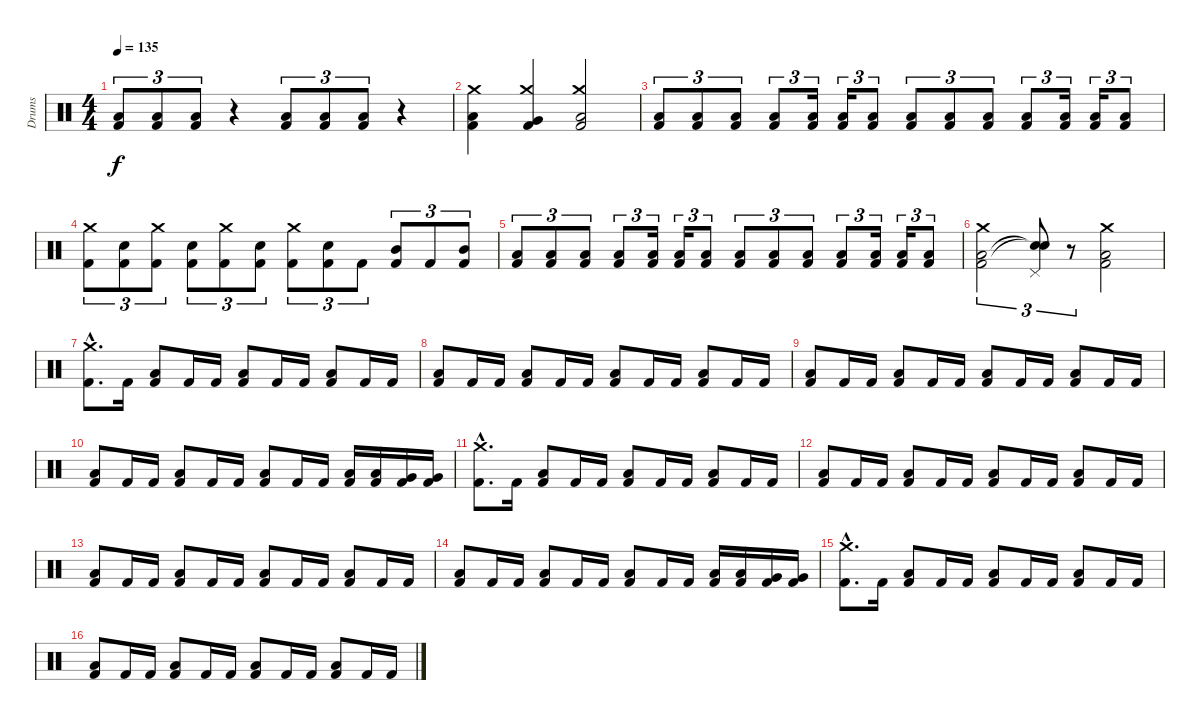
\track ("Drums" "Drums") {instrument percussion}
\staff {score}
\articulation defaults
\ts (4 4)
\tempo 135
\clef neutral
\ks c
("Low Floor Tom (hit)" "Kick (hit) 2").8{tu (3 2) dy f} ("Low Floor Tom (hit)" "Kick (hit) 2").8{tu (3 2)} ("Low Floor Tom (hit)" "Kick (hit) 2").8{tu (3 2)} r.4 ("Low Floor Tom (hit)" "Kick (hit) 2").8{tu (3 2)} ("Low Floor Tom (hit)" "Kick (hit) 2").8{tu (3 2)} ("Low Floor Tom (hit)" "Kick (hit) 2").8{tu (3 2)} r.4 |
("Crash medium (hit)" "Low Floor Tom (hit)" "Kick (hit) 2").4 ("Crash medium (hit)" "Very Low Tom (hit)" "Kick (hit) 2").4 ("Crash medium (hit)" "Low Tom (hit)" "Kick (hit) 2").2 |
("Low Floor Tom (hit)" "Kick (hit) 2").8{tu (3 2)} ("Low Floor Tom (hit)" "Kick (hit) 2").8{tu (3 2)} ("Low Floor Tom (hit)" "Kick (hit) 2").8{tu (3 2)} ("Low Floor Tom (hit)" "Kick (hit) 2").8{tu (3 2)} ("Low Floor Tom (hit)" "Kick (hit) 2").16{tu (3 2)} ("Low Floor Tom (hit)" "Kick (hit) 2").16{tu (3 2)} ("Low Floor Tom (hit)" "Kick (hit) 2").8{tu (3 2)} ("Low Floor Tom (hit)" "Kick (hit) 2").8{tu (3 2)} ("Low Floor Tom (hit)" "Kick (hit) 2").8{tu (3 2)} ("Low Floor Tom (hit)" "Kick (hit) 2").8{tu (3 2)} ("Low Floor Tom (hit)" "Kick (hit) 2").8{tu (3 2)} ("Low Floor Tom (hit)" "Kick (hit) 2").16{tu (3 2)} ("Low Floor Tom (hit)" "Kick (hit) 2").16{tu (3 2)} ("Low Floor Tom (hit)" "Kick (hit) 2").8{tu (3 2)} |
("Crash medium (hit)" "Kick (hit) 2").8{tu (3 2)} ("Electric Snare (hit)" "Kick (hit) 2").8{tu (3 2)} ("Crash medium (hit)" "Kick (hit) 2").8{tu (3 2)} ("Electric Snare (hit)" "Kick (hit) 2").8{tu (3 2)} ("Crash medium (hit)" "Kick (hit) 2").8{tu (3 2)} ("Snare (hit) 2" "Kick (hit) 2").8{tu (3 2)} ("Crash medium (hit)" "Kick (hit) 2").8{tu (3 2)} ("Snare (hit) 2" "Kick (hit) 2").8{tu (3 2)} "Kick (hit) 2".8{tu (3 2)} ("Mid Tom (hit)" "Kick (hit) 2").8{tu (3 2)} "Kick (hit) 2".8{tu (3 2)} ("Mid Tom (hit)" "Kick (hit) 2").8{tu (3 2)} |
("Low Floor Tom (hit)" "Kick (hit) 2").8{tu (3 2)} ("Low Floor Tom (hit)" "Kick (hit) 2").8{tu (3 2)} ("Low Floor Tom (hit)" "Kick (hit) 2").8{tu (3 2)} ("Low Floor Tom (hit)" "Kick (hit) 2").8{tu (3 2)} ("Low Floor Tom (hit)" "Kick (hit) 2").16{tu (3 2)} ("Low Floor Tom (hit)" "Kick (hit) 2").16{tu (3 2)} ("Low Floor Tom (hit)" "Kick (hit) 2").8{tu (3 2)} ("Low Floor Tom (hit)" "Kick (hit) 2").8{tu (3 2)} ("Low Floor Tom (hit)" "Kick (hit) 2").8{tu (3 2)} ("Low Floor Tom (hit)" "Kick (hit) 2").8{tu (3 2)} ("Low Floor Tom (hit)" "Kick (hit) 2").8{tu (3 2)} ("Low Floor Tom (hit)" "Kick (hit) 2").16{tu (3 2)} ("Low Floor Tom (hit)" "Kick (hit) 2").16{tu (3 2)} ("Low Floor Tom (hit)" "Kick (hit) 2").8{tu (3 2)} |
("Crash medium (hit)" "Low Floor Tom (hit)" "Kick (hit) 2").2{tu (3 2)} ("Pedal Hi-Hat (hit)" "Snare (hit)"{t} "Snare (hit)"{t}).8{tu (3 2)} r.8{tu (3 2)} ("Crash medium (hit)" "Low Floor Tom (hit)" "Kick (hit) 2").2 |
("Crash medium (hit)"{hac} "Kick (hit) 2"{hac}).8{d} "Kick (hit) 2".16 ("Low Tom (hit)" "Kick (hit) 2").8 "Kick (hit) 2".16 "Kick (hit) 2".16 ("Low Tom (hit)" "Kick (hit) 2").8 "Kick (hit) 2".16 "Kick (hit) 2".16 ("Low Tom (hit)" "Kick (hit) 2").8 "Kick (hit) 2".16 "Kick (hit) 2".16 |
("Low Tom (hit)" "Kick (hit) 2").8 "Kick (hit) 2".16 "Kick (hit) 2".16 ("Low Tom (hit)" "Kick (hit) 2").8 "Kick (hit) 2".16 "Kick (hit) 2".16 ("Low Tom (hit)" "Kick (hit) 2").8 "Kick (hit) 2".16 "Kick (hit) 2".16 ("Low Tom (hit)" "Kick (hit) 2").8 "Kick (hit) 2".16 "Kick (hit) 2".16 |
("Low Tom (hit)" "Kick (hit) 2").8 "Kick (hit) 2".16 "Kick (hit) 2".16 ("Low Tom (hit)" "Kick (hit) 2").8 "Kick (hit) 2".16 "Kick (hit) 2".16 ("Low Tom (hit)" "Kick (hit) 2").8 "Kick (hit) 2".16 "Kick (hit) 2".16 ("Low Tom (hit)" "Kick (hit) 2").8 "Kick (hit) 2".16 "Kick (hit) 2".16 |
("Low Tom (hit)" "Kick (hit) 2").8 "Kick (hit) 2".16 "Kick (hit) 2".16 ("Low Tom (hit)" "Kick (hit) 2").8 "Kick (hit) 2".16 "Kick (hit) 2".16 ("Low Tom (hit)" "Kick (hit) 2").8 "Kick (hit) 2".16 "Kick (hit) 2".16 ("Low Tom (hit)" "Kick (hit) 2").16 ("Low Tom (hit)" "Kick (hit) 2").16 ("Very Low Tom (hit)" "Kick (hit) 2").16 ("Very Low Tom (hit)" "Kick (hit) 2").16 |
("Crash medium (hit)"{hac} "Kick (hit) 2"{hac}).8{d} "Kick (hit) 2".16 ("Low Tom (hit)" "Kick (hit) 2").8 "Kick (hit) 2".16 "Kick (hit) 2".16 ("Low Tom (hit)" "Kick (hit) 2").8 "Kick (hit) 2".16 "Kick (hit) 2".16 ("Low Tom (hit)" "Kick (hit) 2").8 "Kick (hit) 2".16 "Kick (hit) 2".16 |
("Low Tom (hit)" "Kick (hit) 2").8 "Kick (hit) 2".16 "Kick (hit) 2".16 ("Low Tom (hit)" "Kick (hit) 2").8 "Kick (hit) 2".16 "Kick (hit) 2".16 ("Low Tom (hit)" "Kick (hit) 2").8 "Kick (hit) 2".16 "Kick (hit) 2".16 ("Low Tom (hit)" "Kick (hit) 2").8 "Kick (hit) 2".16 "Kick (hit) 2".16 |
("Low Tom (hit)" "Kick (hit) 2").8 "Kick (hit) 2".16 "Kick (hit) 2".16 ("Low Tom (hit)" "Kick (hit) 2").8 "Kick (hit) 2".16 "Kick (hit) 2".16 ("Low Tom (hit)" "Kick (hit) 2").8 "Kick (hit) 2".16 "Kick (hit) 2".16 ("Low Tom (hit)" "Kick (hit) 2").8 "Kick (hit) 2".16 "Kick (hit) 2".16 |
("Low Tom (hit)" "Kick (hit) 2").8 "Kick (hit) 2".16 "Kick (hit) 2".16 ("Low Tom (hit)" "Kick (hit) 2").8 "Kick (hit) 2".16 "Kick (hit) 2".16 ("Low Tom (hit)" "Kick (hit) 2").8 "Kick (hit) 2".16 "Kick (hit) 2".16 ("Low Tom (hit)" "Kick (hit) 2").16 ("Low Tom (hit)" "Kick (hit) 2").16 ("Very Low Tom (hit)" "Kick (hit) 2").16 ("Very Low Tom (hit)" "Kick (hit) 2").16 |
("Crash medium (hit)"{hac} "Kick (hit) 2"{hac}).8{d} "Kick (hit) 2".16 ("Low Tom (hit)" "Kick (hit) 2").8 "Kick (hit) 2".16 "Kick (hit) 2".16 ("Low Tom (hit)" "Kick (hit) 2").8 "Kick (hit) 2".16 "Kick (hit) 2".16 ("Low Tom (hit)" "Kick (hit) 2").8 "Kick (hit) 2".16 "Kick (hit) 2".16 |
("Low Tom (hit)" "Kick (hit) 2").8 "Kick (hit) 2".16 "Kick (hit) 2".16 ("Low Tom (hit)" "Kick (hit) 2").8 "Kick (hit) 2".16 "Kick (hit) 2".16 ("Low Tom (hit)" "Kick (hit) 2").8 "Kick (hit) 2".16 "Kick (hit) 2".16 ("Low Tom (hit)" "Kick (hit) 2").8 "Kick (hit) 2".16 "Kick (hit) 2".16
